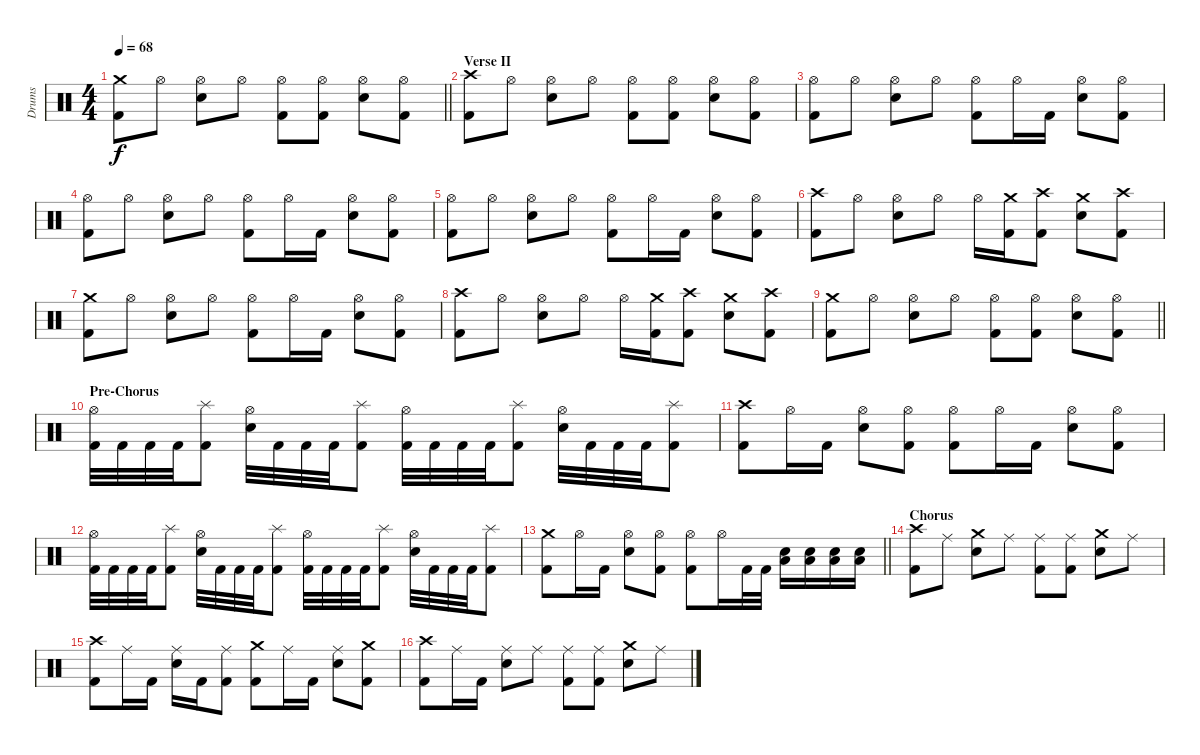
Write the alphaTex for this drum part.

\track ("Drums" "Drums") {instrument percussion}
\staff {score}
\articulation defaults
\ts (4 4)
\tempo 68
\clef neutral
\barLineRight lightlight
\ks c
("Crash medium (hit)" "Kick (hit) 2").8{dy f} "Hi-Hat (open)".8 ("Hi-Hat (open)" "Snare (hit) 2").8 "Hi-Hat (open)".8 ("Hi-Hat (open)" "Kick (hit) 2").8 ("Hi-Hat (open)" "Kick (hit) 2").8 ("Hi-Hat (open)" "Snare (hit) 2").8 ("Hi-Hat (open)" "Kick (hit) 2").8 |
\section ("" "Verse II")
("Crash high (hit)" "Kick (hit) 2").8 "Hi-Hat (open)".8 ("Hi-Hat (open)" "Snare (hit) 2").8 "Hi-Hat (open)".8 ("Hi-Hat (open)" "Kick (hit) 2").8 ("Hi-Hat (open)" "Kick (hit) 2").8 ("Hi-Hat (open)" "Snare (hit) 2").8 ("Hi-Hat (open)" "Kick (hit) 2").8 |
("Hi-Hat (open)" "Kick (hit) 2").8 "Hi-Hat (open)".8 ("Hi-Hat (open)" "Snare (hit) 2").8 "Hi-Hat (open)".8 ("Hi-Hat (open)" "Kick (hit) 2").8 "Hi-Hat (open)".16 "Kick (hit) 2".16 ("Hi-Hat (open)" "Snare (hit) 2").8 ("Hi-Hat (open)" "Kick (hit) 2").8 |
("Hi-Hat (open)" "Kick (hit) 2").8 "Hi-Hat (open)".8 ("Hi-Hat (open)" "Snare (hit) 2").8 "Hi-Hat (open)".8 ("Hi-Hat (open)" "Kick (hit) 2").8 "Hi-Hat (open)".16 "Kick (hit) 2".16 ("Hi-Hat (open)" "Snare (hit) 2").8 ("Hi-Hat (open)" "Kick (hit) 2").8 |
("Hi-Hat (open)" "Kick (hit) 2").8 "Hi-Hat (open)".8 ("Hi-Hat (open)" "Snare (hit) 2").8 "Hi-Hat (open)".8 ("Hi-Hat (open)" "Kick (hit) 2").8 "Hi-Hat (open)".16 "Kick (hit) 2".16 ("Hi-Hat (open)" "Snare (hit) 2").8 ("Hi-Hat (open)" "Kick (hit) 2").8 |
("Crash high (hit)" "Kick (hit) 2").8 "Hi-Hat (open)".8 ("Hi-Hat (open)" "Snare (hit) 2").8 "Hi-Hat (open)".8 "Hi-Hat (open)".16 ("Crash medium (hit)" "Kick (hit) 2").16 ("Crash high (hit)" "Kick (hit) 2").8 ("Crash medium (hit)" "Snare (hit) 2").8 ("Crash high (hit)" "Kick (hit) 2").8 |
("Crash medium (hit)" "Kick (hit) 2").8 "Hi-Hat (open)".8 ("Hi-Hat (open)" "Snare (hit) 2").8 "Hi-Hat (open)".8 ("Hi-Hat (open)" "Kick (hit) 2").8 "Hi-Hat (open)".16 "Kick (hit) 2".16 ("Hi-Hat (open)" "Snare (hit) 2").8 ("Hi-Hat (open)" "Kick (hit) 2").8 |
("Crash high (hit)" "Kick (hit) 2").8 "Hi-Hat (open)".8 ("Hi-Hat (open)" "Snare (hit) 2").8 "Hi-Hat (open)".8 "Hi-Hat (open)".16 ("Crash medium (hit)" "Kick (hit) 2").16 ("Crash high (hit)" "Kick (hit) 2").8 ("Crash medium (hit)" "Snare (hit) 2").8 ("Crash high (hit)" "Kick (hit) 2").8 |
\barLineRight lightlight
("Crash medium (hit)" "Kick (hit) 2").8 "Hi-Hat (open)".8 ("Hi-Hat (open)" "Snare (hit) 2").8 "Hi-Hat (open)".8 ("Hi-Hat (open)" "Kick (hit) 2").8 ("Hi-Hat (open)" "Kick (hit) 2").8 ("Hi-Hat (open)" "Snare (hit) 2").8 ("Hi-Hat (open)" "Kick (hit) 2").8 |
\section ("" "Pre-Chorus")
("Hi-Hat (open)" "Kick (hit) 2").32 "Kick (hit) 2".32 "Kick (hit) 2".32 "Kick (hit) 2".32 ("Splash (hit)" "Kick (hit) 2").8 ("Hi-Hat (open)" "Snare (hit) 2").32 "Kick (hit) 2".32 "Kick (hit) 2".32 "Kick (hit) 2".32 ("Splash (hit)" "Kick (hit) 2").8 ("Hi-Hat (open)" "Kick (hit) 2").32 "Kick (hit) 2".32 "Kick (hit) 2".32 "Kick (hit) 2".32 ("Splash (hit)" "Kick (hit) 2").8 ("Hi-Hat (open)" "Snare (hit) 2").32 "Kick (hit) 2".32 "Kick (hit) 2".32 "Kick (hit) 2".32 ("Splash (hit)" "Kick (hit) 2").8 |
("Crash high (hit)" "Kick (hit) 2").8 "Hi-Hat (open)".16 "Kick (hit) 2".16 ("Hi-Hat (open)" "Snare (hit) 2").8 ("Hi-Hat (open)" "Kick (hit) 2").8 ("Hi-Hat (open)" "Kick (hit) 2").8 "Hi-Hat (open)".16 "Kick (hit) 2".16 ("Hi-Hat (open)" "Snare (hit) 2").8 ("Hi-Hat (open)" "Kick (hit) 2").8 |
("Hi-Hat (open)" "Kick (hit) 2").32 "Kick (hit) 2".32 "Kick (hit) 2".32 "Kick (hit) 2".32 ("Splash (hit)" "Kick (hit) 2").8 ("Hi-Hat (open)" "Snare (hit) 2").32 "Kick (hit) 2".32 "Kick (hit) 2".32 "Kick (hit) 2".32 ("Splash (hit)" "Kick (hit) 2").8 ("Hi-Hat (open)" "Kick (hit) 2").32 "Kick (hit) 2".32 "Kick (hit) 2".32 "Kick (hit) 2".32 ("Splash (hit)" "Kick (hit) 2").8 ("Hi-Hat (open)" "Snare (hit) 2").32 "Kick (hit) 2".32 "Kick (hit) 2".32 "Kick (hit) 2".32 ("Splash (hit)" "Kick (hit) 2").8 |
\barLineRight lightlight
("Crash medium (hit)" "Kick (hit) 2").8 "Hi-Hat (open)".16 "Kick (hit) 2".16 ("Hi-Hat (open)" "Snare (hit) 2").8 ("Hi-Hat (open)" "Kick (hit) 2").8 ("Hi-Hat (open)" "Kick (hit) 2").8 "Hi-Hat (open)".16 "Kick (hit) 2".32 "Kick (hit) 2".32 ("Snare (hit) 2" "Low Tom (hit)").16 ("Snare (hit) 2" "Low Tom (hit)").16 ("Snare (hit) 2" "Low Tom (hit)").16 ("Snare (hit) 2" "Low Tom (hit)").16 |
\section ("" "Chorus")
("Crash high (hit)" "Kick (hit) 2").8 "Ride (middle)".8 ("Crash medium (hit)" "Snare (hit) 2").8 "Ride (middle)".8 ("Ride (middle)" "Kick (hit) 2").8 ("Ride (middle)" "Kick (hit) 2").8 ("Crash medium (hit)" "Snare (hit) 2").8 "Ride (middle)".8 |
("Crash high (hit)" "Kick (hit) 2").8 "Ride (middle)".16 "Kick (hit) 2".16 ("Ride (middle)" "Snare (hit) 2").16 "Kick (hit) 2".16 ("Ride (middle)" "Kick (hit) 2").8 ("Crash medium (hit)" "Kick (hit) 2").8 "Ride (middle)".16 "Kick (hit) 2".16 ("Ride (middle)" "Snare (hit) 2").8 ("Crash medium (hit)" "Kick (hit) 2").8 |
("Crash high (hit)" "Kick (hit) 2").8 "Ride (middle)".16 "Kick (hit) 2".16 ("Ride (middle)" "Snare (hit) 2").8 "Ride (middle)".8 ("Ride (middle)" "Kick (hit) 2").8 ("Ride (middle)" "Kick (hit) 2").8 ("Crash medium (hit)" "Snare (hit) 2").8 "Ride (middle)".8
